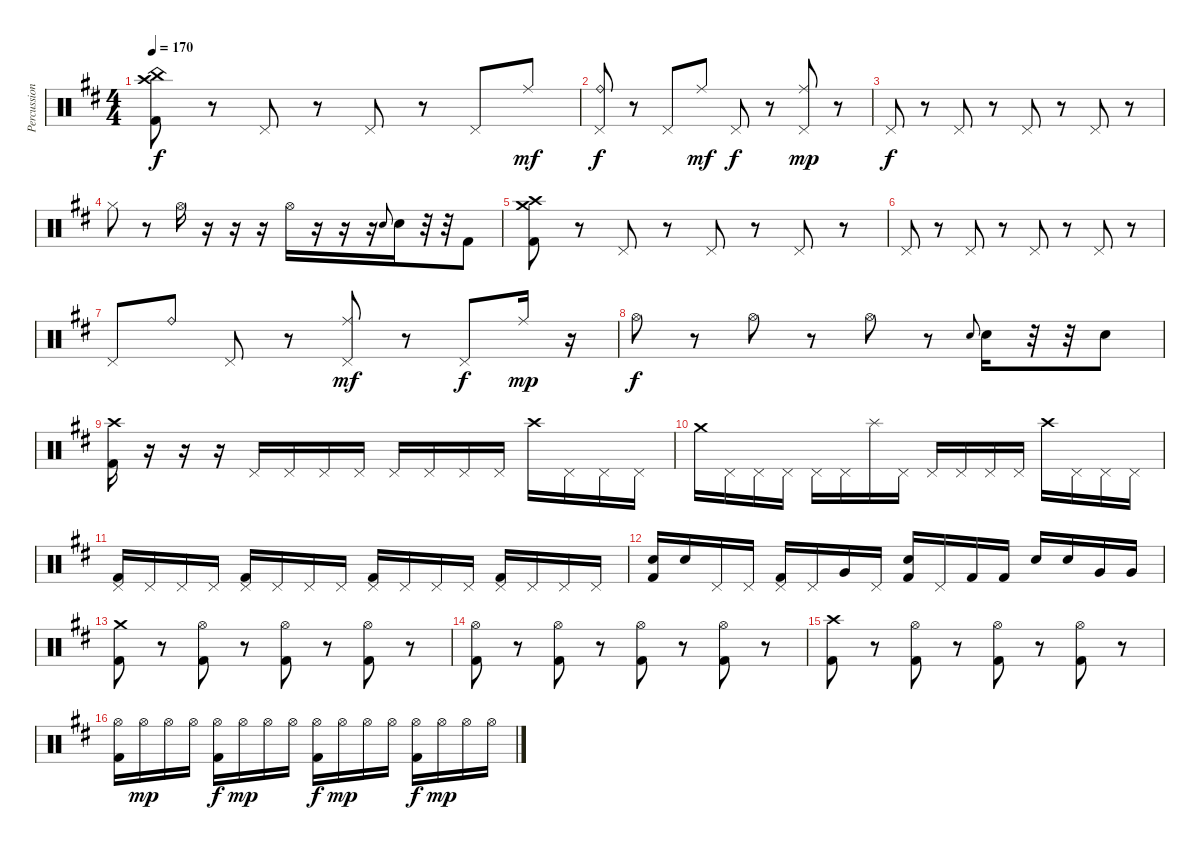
\track ("Percussion" "Percussion") {instrument percussion}
\staff {score}
\articulation defaults
\ts (4 4)
\tempo 170
\clef neutral
\ks bminor
("Crash high (hit)" "China (hit)" "Kick (hit) 2").8{dy f} r.8 "Pedal Hi-Hat (hit)".8 r.8 "Pedal Hi-Hat (hit)".8 r.8 "Pedal Hi-Hat (hit)".8{beam merge} "Ride (middle)".8{dy mf} |
("Ride (bell)" "Pedal Hi-Hat (hit)").8{dy f} r.8 "Pedal Hi-Hat (hit)".8 "Ride (middle)".8{dy mf} "Pedal Hi-Hat (hit)".8{dy f} r.8 ("Ride (middle)" "Pedal Hi-Hat (hit)").8{dy mp beam merge} r.8 |
"Pedal Hi-Hat (hit)".8{dy f} r.8 "Pedal Hi-Hat (hit)".8 r.8 "Pedal Hi-Hat (hit)".8 r.8 "Pedal Hi-Hat (hit)".8{beam merge} r.8 |
"Hi-Hat (closed)".8 r.8 "Hi-Hat (open)".16 r.16 r.16 r.16 "Hi-Hat (open)".16{beam merge} r.16 r.16 r.16 "Electric Snare (hit)".8{gr onbeat} "Electric Snare (hit)".16 r.32 r.32 "Kick (hit) 2".8 |
("Crash high (hit)" "Crash medium (hit)" "Kick (hit) 2").8 r.8 "Pedal Hi-Hat (hit)".8 r.8 "Pedal Hi-Hat (hit)".8 r.8 "Pedal Hi-Hat (hit)".8{beam merge} r.8 |
"Pedal Hi-Hat (hit)".8 r.8 "Pedal Hi-Hat (hit)".8 r.8 "Pedal Hi-Hat (hit)".8 r.8 "Pedal Hi-Hat (hit)".8{beam merge} r.8 |
"Pedal Hi-Hat (hit)".8 "Ride (bell)".8 "Pedal Hi-Hat (hit)".8 r.8 ("Ride (middle)" "Pedal Hi-Hat (hit)").8{dy mf} r.8 "Pedal Hi-Hat (hit)".8{dy f beam merge} "Ride (middle)".16{dy mp beam merge} r.16 |
"Hi-Hat (open)".8{dy f} r.8 "Hi-Hat (open)".8 r.8 "Hi-Hat (open)".8 r.8 "Electric Snare (hit)".8{gr onbeat} "Electric Snare (hit)".16 r.32 r.32 "Electric Snare (hit)".8 |
("Crash high (hit)" "Kick (hit) 2").16 r.16 r.16 r.16 "Pedal Hi-Hat (hit)".16 "Pedal Hi-Hat (hit)".16 "Pedal Hi-Hat (hit)".16 "Pedal Hi-Hat (hit)".16 "Pedal Hi-Hat (hit)".16{beam merge} "Pedal Hi-Hat (hit)".16 "Pedal Hi-Hat (hit)".16 "Pedal Hi-Hat (hit)".16 "Crash high (hit)".16 "Pedal Hi-Hat (hit)".16{beam merge} "Pedal Hi-Hat (hit)".16 "Pedal Hi-Hat (hit)".16 |
"Crash medium (hit)".16 "Pedal Hi-Hat (hit)".16 "Pedal Hi-Hat (hit)".16 "Pedal Hi-Hat (hit)".16 "Pedal Hi-Hat (hit)".16 "Pedal Hi-Hat (hit)".16 "Splash (hit)".16 "Pedal Hi-Hat (hit)".16 "Pedal Hi-Hat (hit)".16{beam merge} "Pedal Hi-Hat (hit)".16 "Pedal Hi-Hat (hit)".16 "Pedal Hi-Hat (hit)".16 "Crash high (hit)".16 "Pedal Hi-Hat (hit)".16{beam merge} "Pedal Hi-Hat (hit)".16 "Pedal Hi-Hat (hit)".16 |
("Kick (hit) 2" "Pedal Hi-Hat (hit)").16 "Pedal Hi-Hat (hit)".16 "Pedal Hi-Hat (hit)".16 "Pedal Hi-Hat (hit)".16 ("Kick (hit) 2" "Pedal Hi-Hat (hit)").16 "Pedal Hi-Hat (hit)".16 "Pedal Hi-Hat (hit)".16 "Pedal Hi-Hat (hit)".16 ("Kick (hit) 2" "Pedal Hi-Hat (hit)").16{beam merge} "Pedal Hi-Hat (hit)".16 "Pedal Hi-Hat (hit)".16 "Pedal Hi-Hat (hit)".16 ("Kick (hit) 2" "Pedal Hi-Hat (hit)").16 "Pedal Hi-Hat (hit)".16{beam merge} "Pedal Hi-Hat (hit)".16 "Pedal Hi-Hat (hit)".16 |
("Kick (hit) 2" "Electric Snare (hit)").16 "Electric Snare (hit)".16 "Pedal Hi-Hat (hit)".16 "Pedal Hi-Hat (hit)".16 ("Kick (hit) 2" "Pedal Hi-Hat (hit)").16 "Pedal Hi-Hat (hit)".16 "Very Low Tom (hit)".16 "Pedal Hi-Hat (hit)".16 ("Kick (hit) 2" "Electric Snare (hit)").16{beam merge} "Pedal Hi-Hat (hit)".16 "Kick (hit) 2".16 "Kick (hit) 2".16 "Electric Snare (hit)".16 "Electric Snare (hit)".16{beam merge} "Very Low Tom (hit)".16 "Very Low Tom (hit)".16 |
("Crash medium (hit)" "Kick (hit) 2").8 r.8 ("Hi-Hat (open)" "Kick (hit) 2").8 r.8 ("Hi-Hat (open)" "Kick (hit) 2").8 r.8 ("Hi-Hat (open)" "Kick (hit) 2").8 r.8 |
("Hi-Hat (open)" "Kick (hit) 2").8 r.8 ("Hi-Hat (open)" "Kick (hit) 2").8 r.8 ("Hi-Hat (open)" "Kick (hit) 2").8 r.8 ("Hi-Hat (open)" "Kick (hit) 2").8 r.8 |
("Crash high (hit)" "Kick (hit) 2").8 r.8 ("Hi-Hat (open)" "Kick (hit) 2").8 r.8 ("Hi-Hat (open)" "Kick (hit) 2").8 r.8 ("Hi-Hat (open)" "Kick (hit) 2").8 r.8 |
("Hi-Hat (open)" "Kick (hit) 2").16 "Hi-Hat (open)".16{dy mp beam merge} "Hi-Hat (open)".16 "Hi-Hat (open)".16 ("Hi-Hat (open)" "Kick (hit) 2").16{dy f beam merge} "Hi-Hat (open)".16{dy mp beam merge} "Hi-Hat (open)".16 "Hi-Hat (open)".16 ("Hi-Hat (open)" "Kick (hit) 2").16{dy f} "Hi-Hat (open)".16{dy mp beam merge} "Hi-Hat (open)".16 "Hi-Hat (open)".16 ("Hi-Hat (open)" "Kick (hit) 2").16{dy f beam merge} "Hi-Hat (open)".16{dy mp} "Hi-Hat (open)".16 "Hi-Hat (open)".16
